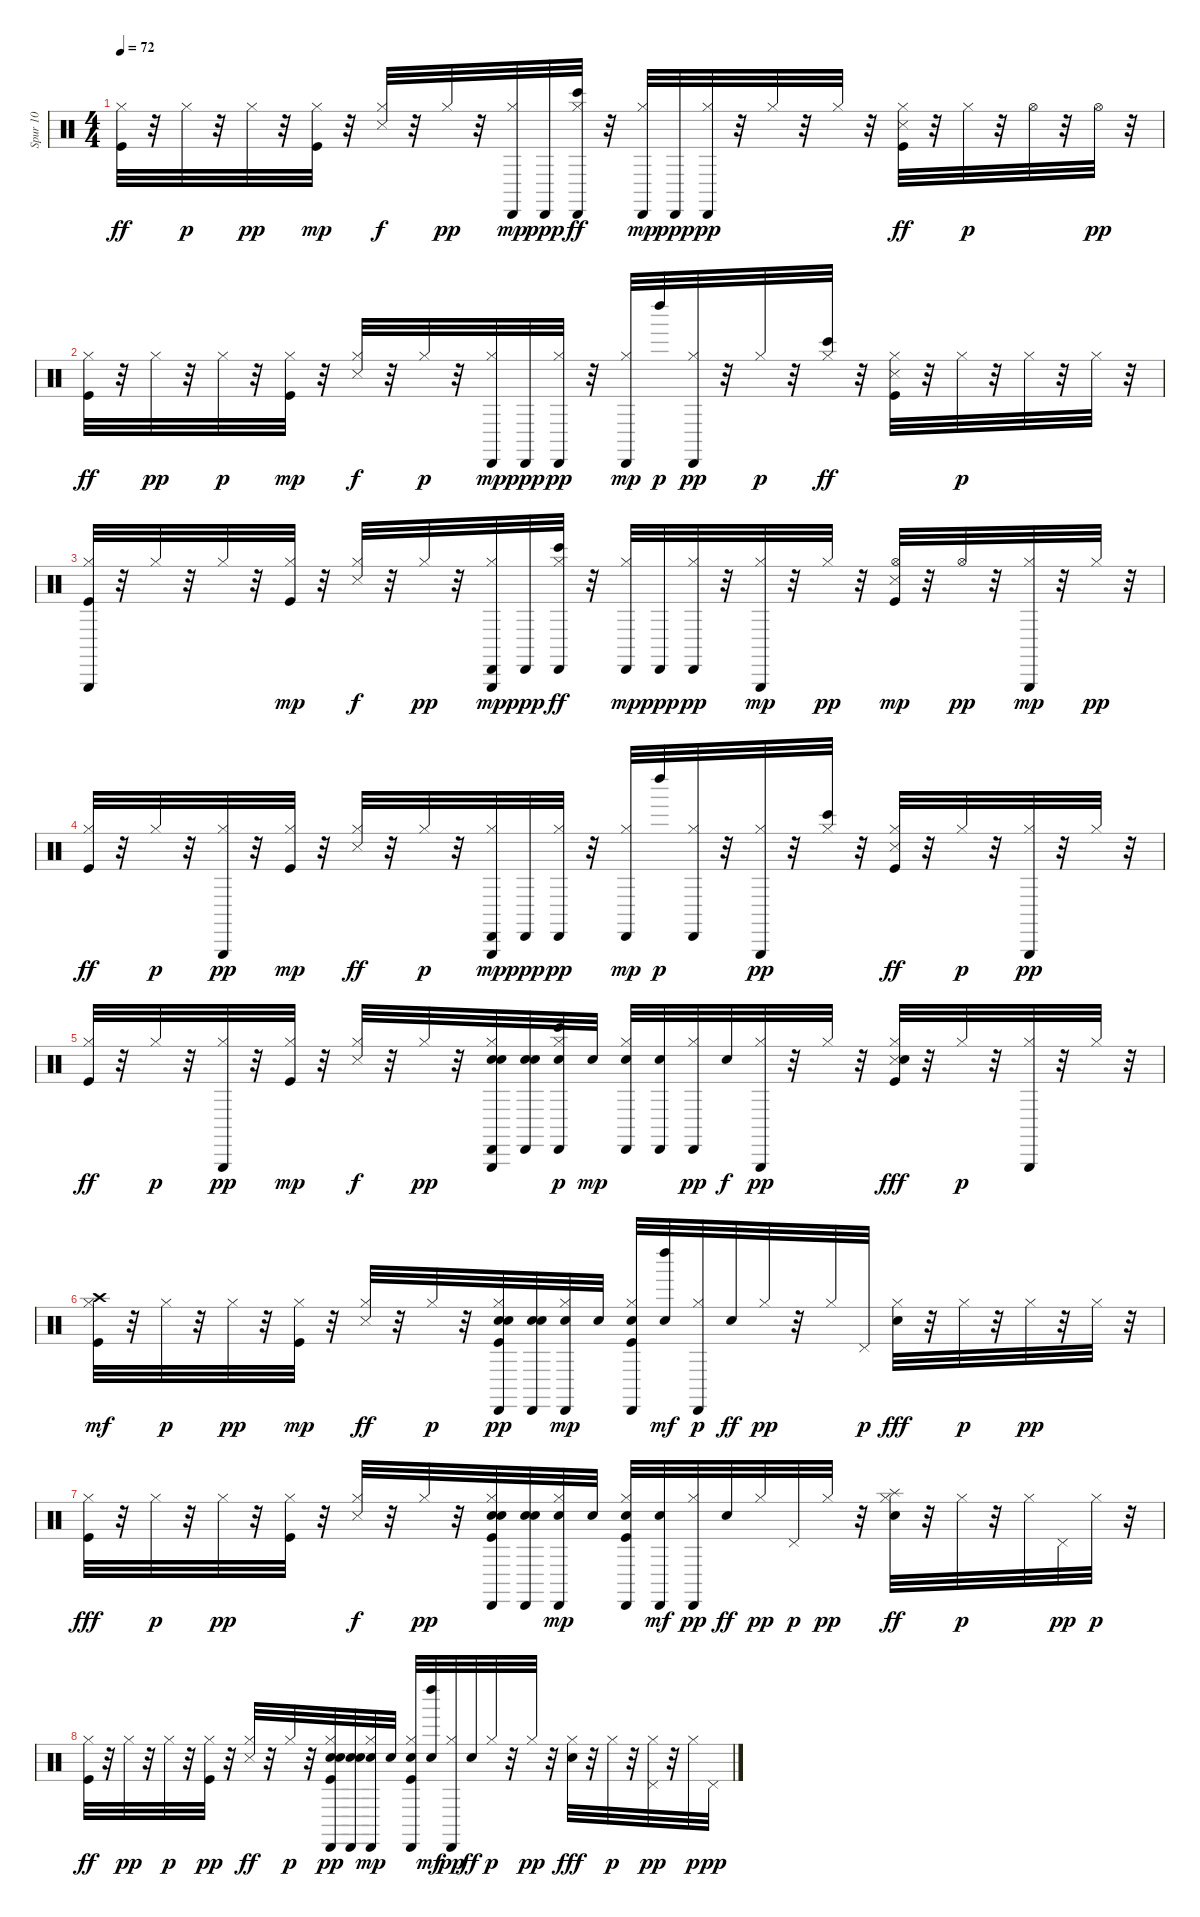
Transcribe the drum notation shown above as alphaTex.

\track ("Spur 10" "Spur 10") {instrument percussion}
\staff {score}
\articulation defaults
\ts (4 4)
\tempo 72
\clef neutral
\ks c
("Kick (hit)" "Hi-Hat (closed)").32{dy ff} r.32 "Hi-Hat (closed)".32{dy p} r.32 "Hi-Hat (closed)".32{dy pp} r.32 ("Hi-Hat (closed)" "Kick (hit)").32{dy mp} r.32 ("Hi-Hat (closed)" "Snare (side stick) 3").32{dy f} r.32 "Hi-Hat (closed)".32{dy pp} r.32 ("Hi-Hat (closed)" "Cabasa (hit)").32{dy mp} "Cabasa (hit)".32{dy ppp} ("Hi-Hat (closed)" "Cabasa (hit)" "Bongo High (hit)").32{dy ff} r.32 ("Hi-Hat (closed)" "Cabasa (hit)").32{dy mp} "Cabasa (hit)".32{dy ppp} ("Cabasa (hit)" "Hi-Hat (closed)").32{dy pp} r.32 "Hi-Hat (closed)".32 r.32 "Hi-Hat (closed)".32 r.32 ("Snare (side stick) 3" "Kick (hit)" "Hi-Hat (closed)").32{dy ff} r.32 "Hi-Hat (closed)".32{dy p} r.32 "Hi-Hat (open)".32 r.32 "Hi-Hat (open)".32{dy pp} r.32 |
("Kick (hit)" "Hi-Hat (closed)").32{dy ff} r.32 "Hi-Hat (closed)".32{dy pp} r.32 "Hi-Hat (closed)".32{dy p} r.32 ("Hi-Hat (closed)" "Kick (hit)").32{dy mp} r.32 ("Hi-Hat (closed)" "Snare (side stick) 3").32{dy f} r.32 "Hi-Hat (closed)".32{dy p} r.32 ("Hi-Hat (closed)" "Cabasa (hit)").32{dy mp} "Cabasa (hit)".32{dy ppp} ("Hi-Hat (closed)" "Cabasa (hit)").32{dy pp} r.32 ("Hi-Hat (closed)" "Cabasa (hit)").32{dy mp} "Left Maraca (hit)".32{dy p} ("Cabasa (hit)" "Hi-Hat (closed)").32{dy pp} r.32 "Hi-Hat (closed)".32{dy p} r.32 ("Hi-Hat (closed)" "Bongo High (hit)").32{dy ff} r.32 ("Snare (side stick) 3" "Kick (hit)" "Hi-Hat (closed)").32 r.32 "Hi-Hat (closed)".32{dy p} r.32 "Hi-Hat (closed)".32 r.32 "Hi-Hat (closed)".32 r.32 |
("Kick (hit)" "Hi-Hat (closed)" "Triangle (hit)").32 r.32 "Hi-Hat (closed)".32 r.32 "Hi-Hat (closed)".32 r.32 ("Hi-Hat (closed)" "Kick (hit)").32{dy mp} r.32 ("Hi-Hat (closed)" "Snare (side stick) 3").32{dy f} r.32 "Hi-Hat (closed)".32{dy pp} r.32 ("Triangle (hit)" "Hi-Hat (closed)" "Cabasa (hit)").32{dy mp} "Cabasa (hit)".32{dy ppp} ("Hi-Hat (closed)" "Cabasa (hit)" "Bongo High (hit)").32{dy ff} r.32 ("Hi-Hat (closed)" "Cabasa (hit)").32{dy mp} "Cabasa (hit)".32{dy ppp} ("Cabasa (hit)" "Hi-Hat (closed)").32{dy pp} r.32 ("Triangle (hit)" "Hi-Hat (closed)").32{dy mp} r.32 "Hi-Hat (closed)".32{dy pp} r.32 ("Snare (side stick) 3" "Kick (hit)" "Hi-Hat (open)").32{dy mp} r.32 "Hi-Hat (open)".32{dy pp} r.32 ("Triangle (hit)" "Hi-Hat (closed)").32{dy mp} r.32 "Hi-Hat (closed)".32{dy pp} r.32 |
("Kick (hit)" "Hi-Hat (closed)").32{dy ff} r.32 "Hi-Hat (closed)".32{dy p} r.32 ("Triangle (hit)" "Hi-Hat (closed)").32{dy pp} r.32 ("Hi-Hat (closed)" "Kick (hit)").32{dy mp} r.32 ("Snare (side stick) 3" "Hi-Hat (closed)").32{dy ff} r.32 "Hi-Hat (closed)".32{dy p} r.32 ("Triangle (hit)" "Hi-Hat (closed)" "Cabasa (hit)").32{dy mp} "Cabasa (hit)".32{dy ppp} ("Hi-Hat (closed)" "Cabasa (hit)").32{dy pp} r.32 ("Cabasa (hit)" "Hi-Hat (closed)").32{dy mp} "Left Maraca (hit)".32{dy p} ("Cabasa (hit)" "Hi-Hat (closed)").32 r.32 ("Triangle (hit)" "Hi-Hat (closed)").32{dy pp} r.32 ("Bongo High (hit)" "Hi-Hat (closed)").32 r.32 ("Snare (side stick) 3" "Kick (hit)" "Hi-Hat (closed)").32{dy ff} r.32 "Hi-Hat (closed)".32{dy p} r.32 ("Triangle (hit)" "Hi-Hat (closed)").32{dy pp} r.32 "Hi-Hat (closed)".32 r.32 |
("Kick (hit)" "Hi-Hat (closed)").32{dy ff} r.32 "Hi-Hat (closed)".32{dy p} r.32 ("Triangle (hit)" "Hi-Hat (closed)").32{dy pp} r.32 ("Hi-Hat (closed)" "Kick (hit)").32{dy mp} r.32 ("Snare (side stick) 3" "Hi-Hat (closed)").32{dy f} r.32 "Hi-Hat (closed)".32{dy pp} r.32 ("Snare (hit) 2" "Hi-Hat (closed)" "Triangle (hit)" "Cabasa (hit)" "Snare (hit) 2").32 ("Cabasa (hit)" "Snare (hit) 2" "Snare (hit) 2").32 ("Hi-Hat (closed)" "Cabasa (hit)" "Bongo High (hit)" "Snare (hit) 2").32{dy p} "Snare (hit) 2".32{dy mp} ("Snare (hit) 2" "Hi-Hat (closed)" "Cabasa (hit)").32 ("Cabasa (hit)" "Snare (hit) 2").32 ("Cabasa (hit)" "Hi-Hat (closed)").32{dy pp} "Snare (hit) 2".32{dy f} ("Triangle (hit)" "Hi-Hat (closed)").32{dy pp} r.32 "Hi-Hat (closed)".32 r.32 ("Snare (side stick) 3" "Kick (hit)" "Hi-Hat (closed)" "Electric Snare (hit)").32{dy fff} r.32 "Hi-Hat (closed)".32{dy p} r.32 ("Triangle (hit)" "Hi-Hat (closed)").32 r.32 "Hi-Hat (closed)".32 r.32 |
("Kick (hit)" "Hi-Hat (closed)" "Crash high (hit)").32{dy mf} r.32 "Hi-Hat (closed)".32{dy p} r.32 "Hi-Hat (closed)".32{dy pp} r.32 ("Hi-Hat (closed)" "Kick (hit)").32{dy mp} r.32 ("Snare (side stick) 3" "Hi-Hat (closed)").32{dy ff} r.32 "Hi-Hat (closed)".32{dy p} r.32 ("Snare (hit) 2" "Kick (hit)" "Hi-Hat (closed)" "Cabasa (hit)" "Snare (hit) 2").32{dy pp} ("Cabasa (hit)" "Snare (hit) 2" "Snare (hit) 2").32 ("Hi-Hat (closed)" "Cabasa (hit)" "Snare (hit) 2").32{dy mp} "Snare (hit) 2".32 ("Snare (hit) 2" "Kick (hit)" "Cabasa (hit)" "Hi-Hat (closed)").32 ("Left Maraca (hit)" "Snare (hit) 2").32{dy mf} ("Cabasa (hit)" "Hi-Hat (closed)").32{dy p} "Snare (hit) 2".32{dy ff} "Hi-Hat (closed)".32{dy pp} r.32 "Hi-Hat (closed)".32 "Pedal Hi-Hat (hit)".32{dy p} ("Electric Snare (hit)" "Hi-Hat (closed)").32{dy fff} r.32 "Hi-Hat (closed)".32{dy p} r.32 "Hi-Hat (closed)".32{dy pp} r.32 "Hi-Hat (closed)".32 r.32 |
("Kick (hit)" "Hi-Hat (closed)").32{dy fff} r.32 "Hi-Hat (closed)".32{dy p} r.32 "Hi-Hat (closed)".32{dy pp} r.32 ("Kick (hit)" "Hi-Hat (closed)").32 r.32 ("Snare (side stick) 3" "Hi-Hat (closed)").32{dy f} r.32 "Hi-Hat (closed)".32{dy pp} r.32 ("Snare (hit) 2" "Kick (hit)" "Hi-Hat (closed)" "Cabasa (hit)" "Snare (hit) 2").32 ("Cabasa (hit)" "Snare (hit) 2" "Snare (hit) 2").32 ("Hi-Hat (closed)" "Cabasa (hit)" "Snare (hit) 2").32{dy mp} "Snare (hit) 2".32 ("Snare (hit) 2" "Kick (hit)" "Hi-Hat (closed)" "Cabasa (hit)").32 ("Cabasa (hit)" "Snare (hit) 2").32{dy mf} ("Cabasa (hit)" "Hi-Hat (closed)").32{dy pp} "Snare (hit) 2".32{dy ff} "Hi-Hat (closed)".32{dy pp} "Pedal Hi-Hat (hit)".32{dy p} "Hi-Hat (closed)".32{dy pp} r.32 ("Splash (hit)" "Electric Snare (hit)" "Hi-Hat (closed)").32{dy ff} r.32 "Hi-Hat (closed)".32{dy p} r.32 "Hi-Hat (closed)".32 "Pedal Hi-Hat (hit)".32{dy pp} "Hi-Hat (closed)".32{dy p} r.32 |
("Kick (hit)" "Hi-Hat (closed)").32{dy ff} r.32 "Hi-Hat (closed)".32{dy pp} r.32 "Hi-Hat (closed)".32{dy p} r.32 ("Kick (hit)" "Hi-Hat (closed)").32{dy pp} r.32 ("Hi-Hat (closed)" "Snare (side stick) 3").32{dy ff} r.32 "Hi-Hat (closed)".32{dy p} r.32 ("Snare (hit) 2" "Kick (hit)" "Hi-Hat (closed)" "Cabasa (hit)" "Snare (hit) 2").32{dy pp} ("Cabasa (hit)" "Snare (hit) 2" "Snare (hit) 2").32 ("Hi-Hat (closed)" "Cabasa (hit)" "Snare (hit) 2").32{dy mp} "Snare (hit) 2".32 ("Snare (hit) 2" "Kick (hit)" "Hi-Hat (closed)" "Cabasa (hit)").32 ("Left Maraca (hit)" "Snare (hit) 2").32{dy mf} ("Cabasa (hit)" "Hi-Hat (closed)").32{dy pp} "Snare (hit) 2".32{dy ff} "Hi-Hat (closed)".32{dy p} r.32 "Hi-Hat (closed)".32{dy pp} r.32 ("Electric Snare (hit)" "Hi-Hat (closed)").32{dy fff} r.32 "Hi-Hat (closed)".32{dy p} r.32 ("Hi-Hat (closed)" "Pedal Hi-Hat (hit)").32{dy pp} r.32 "Hi-Hat (closed)".32{dy p} "Pedal Hi-Hat (hit)".32{dy pp}
